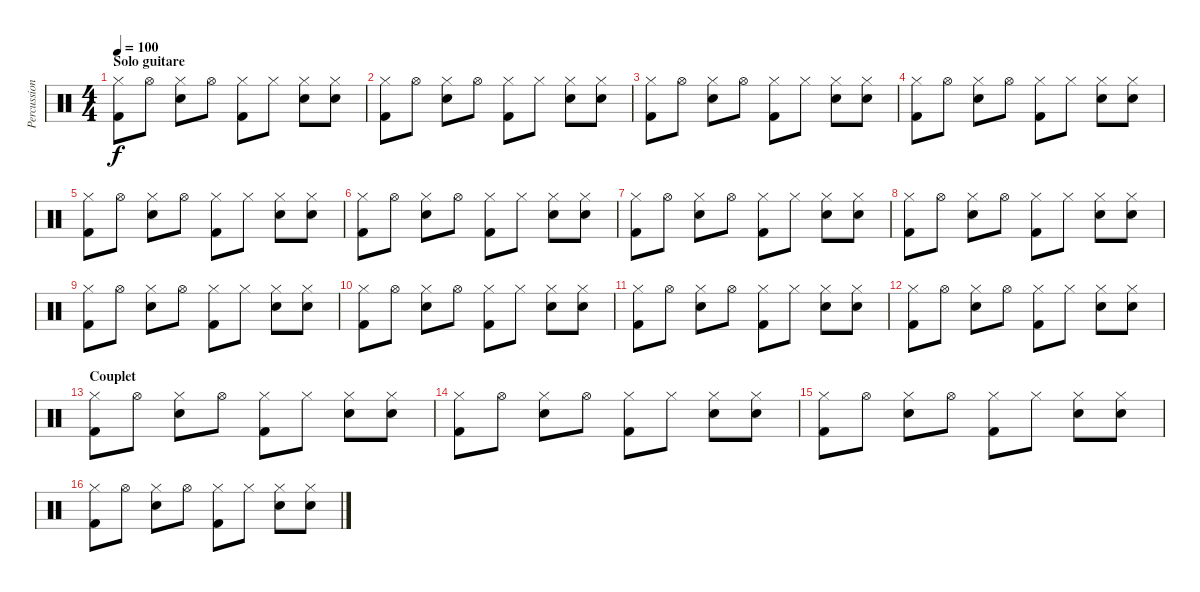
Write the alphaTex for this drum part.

\track ("Percussions" "Percussion") {instrument percussion}
\staff {score}
\articulation defaults
\ts (4 4)
\section ("" "Solo guitare")
\tempo 100
\clef neutral
\ks c
("Hi-Hat (closed)" "Kick (hit) 2").8{dy f} "Hi-Hat (open)".8 ("Hi-Hat (closed)" "Snare (hit) 2").8 "Hi-Hat (open)".8 ("Hi-Hat (closed)" "Kick (hit) 2").8 "Hi-Hat (closed)".8 ("Hi-Hat (closed)" "Snare (hit) 2").8 ("Hi-Hat (closed)" "Snare (hit) 2").8 |
("Hi-Hat (closed)" "Kick (hit) 2").8 "Hi-Hat (open)".8 ("Hi-Hat (closed)" "Snare (hit) 2").8 "Hi-Hat (open)".8 ("Hi-Hat (closed)" "Kick (hit) 2").8 "Hi-Hat (closed)".8 ("Hi-Hat (closed)" "Snare (hit) 2").8 ("Hi-Hat (closed)" "Snare (hit) 2").8 |
("Hi-Hat (closed)" "Kick (hit) 2").8 "Hi-Hat (open)".8 ("Hi-Hat (closed)" "Snare (hit) 2").8 "Hi-Hat (open)".8 ("Hi-Hat (closed)" "Kick (hit) 2").8 "Hi-Hat (closed)".8 ("Hi-Hat (closed)" "Snare (hit) 2").8 ("Hi-Hat (closed)" "Snare (hit) 2").8 |
("Hi-Hat (closed)" "Kick (hit) 2").8 "Hi-Hat (open)".8 ("Hi-Hat (closed)" "Snare (hit) 2").8 "Hi-Hat (open)".8 ("Hi-Hat (closed)" "Kick (hit) 2").8 "Hi-Hat (closed)".8 ("Hi-Hat (closed)" "Snare (hit) 2").8 ("Hi-Hat (closed)" "Snare (hit) 2").8 |
("Hi-Hat (closed)" "Kick (hit) 2").8 "Hi-Hat (open)".8 ("Hi-Hat (closed)" "Snare (hit) 2").8 "Hi-Hat (open)".8 ("Hi-Hat (closed)" "Kick (hit) 2").8 "Hi-Hat (closed)".8 ("Hi-Hat (closed)" "Snare (hit) 2").8 ("Hi-Hat (closed)" "Snare (hit) 2").8 |
("Hi-Hat (closed)" "Kick (hit) 2").8 "Hi-Hat (open)".8 ("Hi-Hat (closed)" "Snare (hit) 2").8 "Hi-Hat (open)".8 ("Hi-Hat (closed)" "Kick (hit) 2").8 "Hi-Hat (closed)".8 ("Hi-Hat (closed)" "Snare (hit) 2").8 ("Hi-Hat (closed)" "Snare (hit) 2").8 |
("Hi-Hat (closed)" "Kick (hit) 2").8 "Hi-Hat (open)".8 ("Hi-Hat (closed)" "Snare (hit) 2").8 "Hi-Hat (open)".8 ("Hi-Hat (closed)" "Kick (hit) 2").8 "Hi-Hat (closed)".8 ("Hi-Hat (closed)" "Snare (hit) 2").8 ("Hi-Hat (closed)" "Snare (hit) 2").8 |
("Hi-Hat (closed)" "Kick (hit) 2").8 "Hi-Hat (open)".8 ("Hi-Hat (closed)" "Snare (hit) 2").8 "Hi-Hat (open)".8 ("Hi-Hat (closed)" "Kick (hit) 2").8 "Hi-Hat (closed)".8 ("Hi-Hat (closed)" "Snare (hit) 2").8 ("Hi-Hat (closed)" "Snare (hit) 2").8 |
("Hi-Hat (closed)" "Kick (hit) 2").8 "Hi-Hat (open)".8 ("Hi-Hat (closed)" "Snare (hit) 2").8 "Hi-Hat (open)".8 ("Hi-Hat (closed)" "Kick (hit) 2").8 "Hi-Hat (closed)".8 ("Hi-Hat (closed)" "Snare (hit) 2").8 ("Hi-Hat (closed)" "Snare (hit) 2").8 |
("Hi-Hat (closed)" "Kick (hit) 2").8 "Hi-Hat (open)".8 ("Hi-Hat (closed)" "Snare (hit) 2").8 "Hi-Hat (open)".8 ("Hi-Hat (closed)" "Kick (hit) 2").8 "Hi-Hat (closed)".8 ("Hi-Hat (closed)" "Snare (hit) 2").8 ("Hi-Hat (closed)" "Snare (hit) 2").8 |
("Hi-Hat (closed)" "Kick (hit) 2").8 "Hi-Hat (open)".8 ("Hi-Hat (closed)" "Snare (hit) 2").8 "Hi-Hat (open)".8 ("Hi-Hat (closed)" "Kick (hit) 2").8 "Hi-Hat (closed)".8 ("Hi-Hat (closed)" "Snare (hit) 2").8 ("Hi-Hat (closed)" "Snare (hit) 2").8 |
("Hi-Hat (closed)" "Kick (hit) 2").8 "Hi-Hat (open)".8 ("Hi-Hat (closed)" "Snare (hit) 2").8 "Hi-Hat (open)".8 ("Hi-Hat (closed)" "Kick (hit) 2").8 "Hi-Hat (closed)".8 ("Hi-Hat (closed)" "Snare (hit) 2").8 ("Hi-Hat (closed)" "Snare (hit) 2").8 |
\section ("" "Couplet")
("Hi-Hat (closed)" "Kick (hit) 2").8 "Hi-Hat (open)".8 ("Hi-Hat (closed)" "Snare (hit) 2").8 "Hi-Hat (open)".8 ("Hi-Hat (closed)" "Kick (hit) 2").8 "Hi-Hat (closed)".8 ("Hi-Hat (closed)" "Snare (hit) 2").8 ("Hi-Hat (closed)" "Snare (hit) 2").8 |
("Hi-Hat (closed)" "Kick (hit) 2").8 "Hi-Hat (open)".8 ("Hi-Hat (closed)" "Snare (hit) 2").8 "Hi-Hat (open)".8 ("Hi-Hat (closed)" "Kick (hit) 2").8 "Hi-Hat (closed)".8 ("Hi-Hat (closed)" "Snare (hit) 2").8 ("Hi-Hat (closed)" "Snare (hit) 2").8 |
("Hi-Hat (closed)" "Kick (hit) 2").8 "Hi-Hat (open)".8 ("Hi-Hat (closed)" "Snare (hit) 2").8 "Hi-Hat (open)".8 ("Hi-Hat (closed)" "Kick (hit) 2").8 "Hi-Hat (closed)".8 ("Hi-Hat (closed)" "Snare (hit) 2").8 ("Hi-Hat (closed)" "Snare (hit) 2").8 |
("Hi-Hat (closed)" "Kick (hit) 2").8 "Hi-Hat (open)".8 ("Hi-Hat (closed)" "Snare (hit) 2").8 "Hi-Hat (open)".8 ("Hi-Hat (closed)" "Kick (hit) 2").8 "Hi-Hat (closed)".8 ("Hi-Hat (closed)" "Snare (hit) 2").8 ("Hi-Hat (closed)" "Snare (hit) 2").8
